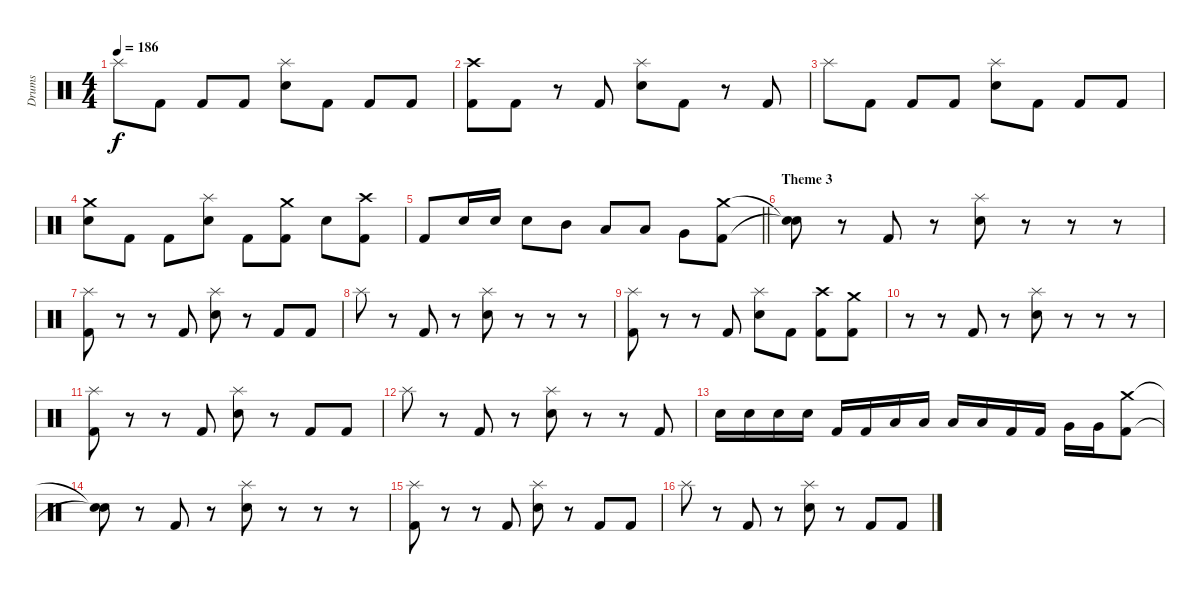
\track ("Drums" "Drums") {instrument percussion}
\staff {score}
\articulation defaults
\ts (4 4)
\tempo 186
\clef neutral
\ks c "Splash (hit)".8{dy f} "Kick (hit) 2".8 "Kick (hit) 2".8 "Kick (hit) 2".8
("Splash (hit)" "Electric Snare (hit)").8 "Kick (hit) 2".8 "Kick (hit) 2".8 "Kick (hit) 2".8 |
("Crash high (hit)" "Kick (hit) 2").8 "Kick (hit) 2".8 r.8 "Kick (hit) 2".8 ("Splash (hit)" "Electric Snare (hit)").8 "Kick (hit) 2".8 r.8 "Kick (hit) 2".8 |
"Splash (hit)".8 "Kick (hit) 2".8 "Kick (hit) 2".8 "Kick (hit) 2".8 ("Splash (hit)" "Electric Snare (hit)").8 "Kick (hit) 2".8 "Kick (hit) 2".8 "Kick (hit) 2".8 |
("Crash medium (hit)" "Electric Snare (hit)").8 "Kick (hit) 2".8 "Kick (hit) 2".8 ("Splash (hit)" "Electric Snare (hit)").8 "Kick (hit) 2".8 ("Crash medium (hit)" "Kick (hit) 2").8 "Electric Snare (hit)".8 ("Crash high (hit)" "Kick (hit) 2").8 |
\barLineRight lightlight "Kick (hit) 2".8 "Electric Snare (hit)".16 "Electric Snare (hit)".16 "Electric Snare (hit)".8 "Mid Tom (hit)".8 "Low Tom (hit)".8 "Low Tom (hit)".8 "Very Low Tom (hit)".8
("Crash medium (hit)" "Kick (hit) 2").8 |
\section ("" "Theme 3")
("Snare (hit)"{t} "Snare (hit)"{t}).8 r.8 "Kick (hit) 2".8 r.8 ("Splash (hit)" "Electric Snare (hit)").8 r.8 r.8 r.8 |
("Splash (hit)" "Kick (hit) 2").8 r.8 r.8 "Kick (hit) 2".8 ("Splash (hit)" "Electric Snare (hit)").8 r.8 "Kick (hit) 2".8 "Kick (hit) 2".8 |
"Splash (hit)".8 r.8 "Kick (hit) 2".8 r.8 ("Splash (hit)" "Electric Snare (hit)").8 r.8 r.8 r.8 |
("Splash (hit)" "Kick (hit) 2").8 r.8 r.8 "Kick (hit) 2".8 ("Splash (hit)" "Electric Snare (hit)").8 "Kick (hit) 2".8 ("Crash high (hit)" "Kick (hit) 2").8 ("Crash medium (hit)" "Kick (hit) 2").8 |
r.8 r.8 "Kick (hit) 2".8 r.8 ("Splash (hit)" "Electric Snare (hit)").8 r.8 r.8 r.8 |
("Splash (hit)" "Kick (hit) 2").8 r.8 r.8 "Kick (hit) 2".8 ("Splash (hit)" "Electric Snare (hit)").8 r.8 "Kick (hit) 2".8 "Kick (hit) 2".8 |
"Splash (hit)".8 r.8 "Kick (hit) 2".8 r.8 ("Splash (hit)" "Electric Snare (hit)").8 r.8 r.8 "Kick (hit) 2".8 |
"Electric Snare (hit)".16 "Electric Snare (hit)".16 "Electric Snare (hit)".16 "Electric Snare (hit)".16 "Kick (hit) 2".16 "Kick (hit) 2".16 "Low Tom (hit)".16 "Low Tom (hit)".16 "Low Tom (hit)".16 "Low Tom (hit)".16 "Kick (hit) 2".16 "Kick (hit) 2".16 "Very Low Tom (hit)".16 "Very Low Tom (hit)".16 ("Crash medium (hit)" "Kick (hit) 2").8 |
("Snare (hit)"{t} "Snare (hit)"{t}).8 r.8 "Kick (hit) 2".8 r.8 ("Splash (hit)" "Electric Snare (hit)").8 r.8 r.8 r.8 |
("Splash (hit)" "Kick (hit) 2").8 r.8 r.8 "Kick (hit) 2".8 ("Splash (hit)" "Electric Snare (hit)").8 r.8 "Kick (hit) 2".8 "Kick (hit) 2".8 |
"Splash (hit)".8 r.8 "Kick (hit) 2".8 r.8 ("Splash (hit)" "Electric Snare (hit)").8 r.8 "Kick (hit) 2".8 "Kick (hit) 2".8
